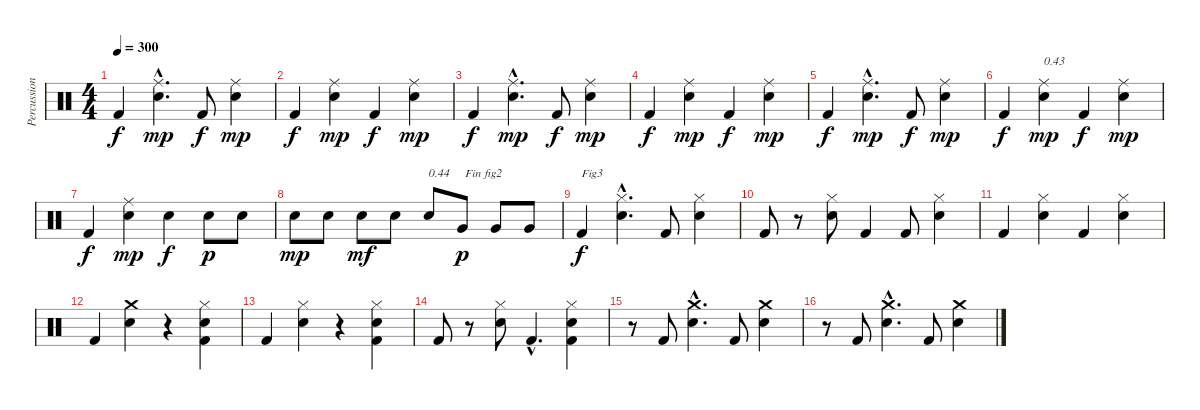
\track ("Percussions" "Percussion") {instrument percussion}
\staff {score}
\articulation defaults
\ts (4 4)
\tempo 300
\clef neutral
\ks c "Kick (hit) 2".4{dy f}
("Electric Snare (hit)"{hac} "Ride (middle)"{hac}).4{d dy mp} "Kick (hit) 2".8{dy f} ("Electric Snare (hit)" "Ride (middle)").4{dy mp} |
"Kick (hit) 2".4{dy f} ("Electric Snare (hit)" "Ride (middle)").4{dy mp} "Kick (hit) 2".4{dy f} ("Electric Snare (hit)" "Ride (middle)").4{dy mp} |
"Kick (hit) 2".4{dy f} ("Electric Snare (hit)"{hac} "Ride (middle)"{hac}).4{d dy mp} "Kick (hit) 2".8{dy f} ("Electric Snare (hit)" "Ride (middle)").4{dy mp} |
"Kick (hit) 2".4{dy f} ("Electric Snare (hit)" "Ride (middle)").4{dy mp} "Kick (hit) 2".4{dy f} ("Electric Snare (hit)" "Ride (middle)").4{dy mp} |
"Kick (hit) 2".4{dy f} ("Electric Snare (hit)"{hac} "Ride (middle)"{hac}).4{d dy mp} "Kick (hit) 2".8{dy f} ("Electric Snare (hit)" "Ride (middle)").4{dy mp} |
"Kick (hit) 2".4{dy f} ("Electric Snare (hit)" "Ride (middle)").4{txt "0.43" dy mp} "Kick (hit) 2".4{dy f} ("Electric Snare (hit)" "Ride (middle)").4{dy mp} |
"Kick (hit) 2".4{dy f} ("Electric Snare (hit)" "Ride (middle)").4{dy mp} "Electric Snare (hit)".4{dy f} "Electric Snare (hit)".8{dy p} "Electric Snare (hit)".8 |
"Electric Snare (hit)".8{dy mp} "Electric Snare (hit)".8 "Electric Snare (hit)".8{dy mf} "Electric Snare (hit)".8 "Electric Snare (hit)".8{txt "0.44"} "Very Low Tom (hit)".8{txt " Fin fig2" dy p} "Very Low Tom (hit)".8 "Very Low Tom (hit)".8 |
"Kick (hit) 2".4{txt "Fig3" dy f} ("Electric Snare (hit)"{hac} "Hi-Hat (closed)"{hac}).4{d} "Kick (hit) 2".8 ("Electric Snare (hit)" "Hi-Hat (closed)").4 |
"Kick (hit) 2".8 r.8 ("Electric Snare (hit)" "Hi-Hat (closed)").8 "Kick (hit) 2".4 "Kick (hit) 2".8 ("Electric Snare (hit)" "Hi-Hat (closed)").4 |
"Kick (hit) 2".4 ("Electric Snare (hit)" "Hi-Hat (closed)").4 "Kick (hit) 2".4 ("Electric Snare (hit)" "Hi-Hat (closed)").4 |
"Kick (hit) 2".4 ("Electric Snare (hit)" "Crash medium (hit)").4 r.4 ("Kick (hit) 2" "Electric Snare (hit)" "Hi-Hat (closed)").4 |
"Kick (hit) 2".4 ("Electric Snare (hit)" "Hi-Hat (closed)").4 r.4 ("Kick (hit) 2" "Electric Snare (hit)" "Hi-Hat (closed)").4 |
"Kick (hit) 2".8 r.8 ("Electric Snare (hit)" "Hi-Hat (closed)").8 "Kick (hit) 2"{hac}.4{d} ("Kick (hit) 2" "Electric Snare (hit)" "Hi-Hat (closed)").4 |
r.8 "Kick (hit) 2".8 ("Electric Snare (hit)"{hac} "Crash medium (hit)"{hac}).4{d} "Kick (hit) 2".8 ("Electric Snare (hit)" "Crash medium (hit)").4 |
r.8 "Kick (hit) 2".8 ("Electric Snare (hit)"{hac} "Crash medium (hit)"{hac}).4{d} "Kick (hit) 2".8 ("Electric Snare (hit)" "Crash medium (hit)").4
